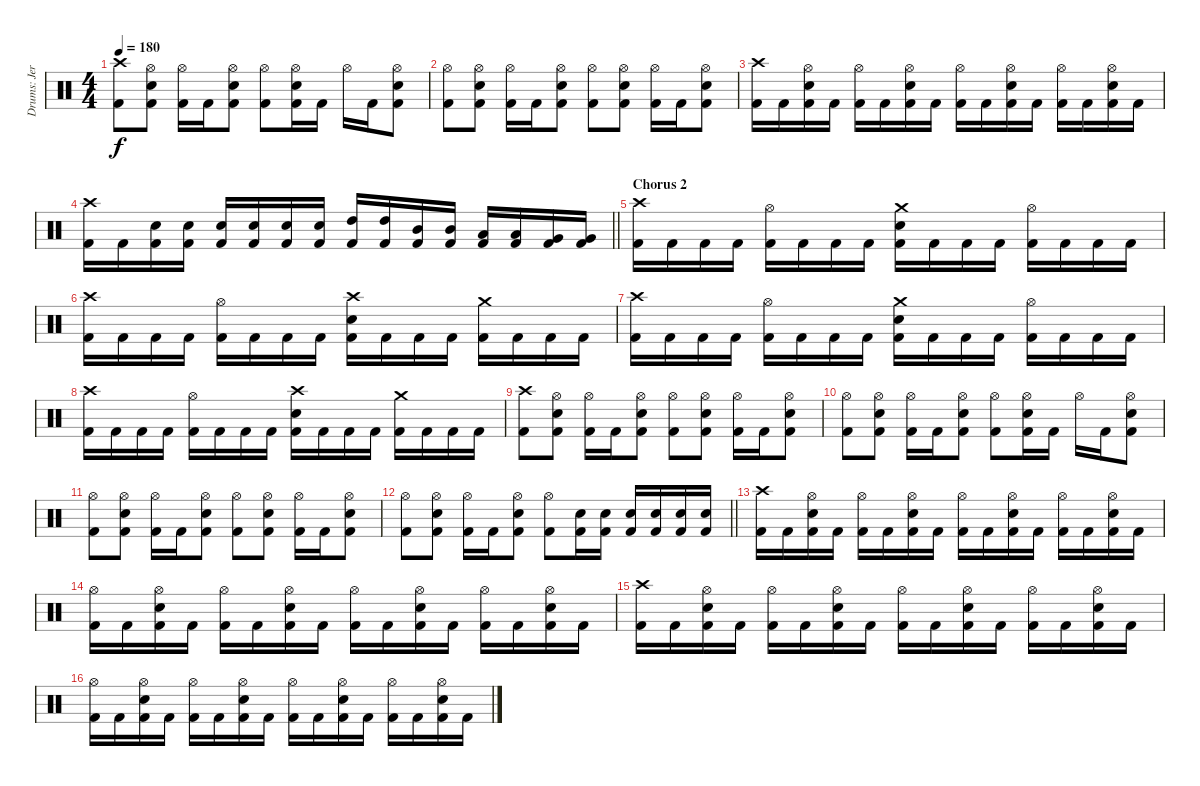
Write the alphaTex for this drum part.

\track ("Drums: Jere Luokkamäki" "Drums: Jer") {instrument percussion}
\staff {score}
\articulation defaults
\ts (4 4)
\tempo 180
\clef neutral
\ks aminor
("Crash high (hit)" "Kick (hit) 2").8{dy f} ("Hi-Hat (open)" "Electric Snare (hit)" "Kick (hit) 2").8 ("Hi-Hat (open)" "Kick (hit) 2").16 "Kick (hit) 2".16 ("Hi-Hat (open)" "Electric Snare (hit)" "Kick (hit) 2").8 ("Hi-Hat (open)" "Kick (hit) 2").8 ("Hi-Hat (open)" "Electric Snare (hit)" "Kick (hit) 2").16 "Kick (hit) 2".16 "Hi-Hat (open)".16 "Kick (hit) 2".16 ("Hi-Hat (open)" "Electric Snare (hit)" "Kick (hit) 2").8 |
("Hi-Hat (open)" "Kick (hit) 2").8 ("Hi-Hat (open)" "Electric Snare (hit)" "Kick (hit) 2").8 ("Hi-Hat (open)" "Kick (hit) 2").16 "Kick (hit) 2".16 ("Hi-Hat (open)" "Electric Snare (hit)" "Kick (hit) 2").8 ("Hi-Hat (open)" "Kick (hit) 2").8 ("Hi-Hat (open)" "Electric Snare (hit)" "Kick (hit) 2").8 ("Hi-Hat (open)" "Kick (hit) 2").16 "Kick (hit) 2".16 ("Hi-Hat (open)" "Electric Snare (hit)" "Kick (hit) 2").8 |
("Crash high (hit)" "Kick (hit) 2").16 "Kick (hit) 2".16 ("Hi-Hat (open)" "Electric Snare (hit)" "Kick (hit) 2").16 "Kick (hit) 2".16 ("Hi-Hat (open)" "Kick (hit) 2").16 "Kick (hit) 2".16 ("Hi-Hat (open)" "Electric Snare (hit)" "Kick (hit) 2").16 "Kick (hit) 2".16 ("Hi-Hat (open)" "Kick (hit) 2").16 "Kick (hit) 2".16 ("Hi-Hat (open)" "Electric Snare (hit)" "Kick (hit) 2").16 "Kick (hit) 2".16 ("Hi-Hat (open)" "Kick (hit) 2").16 "Kick (hit) 2".16 ("Hi-Hat (open)" "Electric Snare (hit)" "Kick (hit) 2").16 "Kick (hit) 2".16 |
\barLineRight lightlight
("Crash high (hit)" "Kick (hit) 2").16 "Kick (hit) 2".16 ("Electric Snare (hit)" "Kick (hit) 2").16 ("Electric Snare (hit)" "Kick (hit) 2").16 ("Electric Snare (hit)" "Kick (hit) 2").16 ("Electric Snare (hit)" "Kick (hit) 2").16 ("Electric Snare (hit)" "Kick (hit) 2").16 ("Electric Snare (hit)" "Kick (hit) 2").16 ("High Tom (hit)" "Kick (hit) 2").16 ("High Tom (hit)" "Kick (hit) 2").16 ("Mid Tom (hit)" "Kick (hit) 2").16 ("Mid Tom (hit)" "Kick (hit) 2").16 ("Low Tom (hit)" "Kick (hit) 2").16 ("Low Tom (hit)" "Kick (hit) 2").16 ("Very Low Tom (hit)" "Kick (hit) 2").16 ("Very Low Tom (hit)" "Kick (hit) 2").16 |
\section ("" "Chorus 2")
("Crash high (hit)" "Kick (hit) 2").16 "Kick (hit) 2".16 "Kick (hit) 2".16 "Kick (hit) 2".16 ("Hi-Hat (open)" "Kick (hit) 2").16 "Kick (hit) 2".16 "Kick (hit) 2".16 "Kick (hit) 2".16 ("Crash medium (hit)" "Electric Snare (hit)" "Kick (hit) 2").16 "Kick (hit) 2".16 "Kick (hit) 2".16 "Kick (hit) 2".16 ("Hi-Hat (open)" "Kick (hit) 2").16 "Kick (hit) 2".16 "Kick (hit) 2".16 "Kick (hit) 2".16 |
("Crash high (hit)" "Kick (hit) 2").16 "Kick (hit) 2".16 "Kick (hit) 2".16 "Kick (hit) 2".16 ("Hi-Hat (open)" "Kick (hit) 2").16 "Kick (hit) 2".16 "Kick (hit) 2".16 "Kick (hit) 2".16 ("Crash high (hit)" "Electric Snare (hit)" "Kick (hit) 2").16 "Kick (hit) 2".16 "Kick (hit) 2".16 "Kick (hit) 2".16 ("Crash medium (hit)" "Kick (hit) 2").16 "Kick (hit) 2".16 "Kick (hit) 2".16 "Kick (hit) 2".16 |
("Crash high (hit)" "Kick (hit) 2").16 "Kick (hit) 2".16 "Kick (hit) 2".16 "Kick (hit) 2".16 ("Hi-Hat (open)" "Kick (hit) 2").16 "Kick (hit) 2".16 "Kick (hit) 2".16 "Kick (hit) 2".16 ("Crash medium (hit)" "Electric Snare (hit)" "Kick (hit) 2").16 "Kick (hit) 2".16 "Kick (hit) 2".16 "Kick (hit) 2".16 ("Hi-Hat (open)" "Kick (hit) 2").16 "Kick (hit) 2".16 "Kick (hit) 2".16 "Kick (hit) 2".16 |
("Crash high (hit)" "Kick (hit) 2").16 "Kick (hit) 2".16 "Kick (hit) 2".16 "Kick (hit) 2".16 ("Hi-Hat (open)" "Kick (hit) 2").16 "Kick (hit) 2".16 "Kick (hit) 2".16 "Kick (hit) 2".16 ("Crash high (hit)" "Electric Snare (hit)" "Kick (hit) 2").16 "Kick (hit) 2".16 "Kick (hit) 2".16 "Kick (hit) 2".16 ("Crash medium (hit)" "Kick (hit) 2").16 "Kick (hit) 2".16 "Kick (hit) 2".16 "Kick (hit) 2".16 |
("Crash high (hit)" "Kick (hit) 2").8 ("Hi-Hat (open)" "Electric Snare (hit)" "Kick (hit) 2").8 ("Hi-Hat (open)" "Kick (hit) 2").16 "Kick (hit) 2".16 ("Hi-Hat (open)" "Electric Snare (hit)" "Kick (hit) 2").8 ("Hi-Hat (open)" "Kick (hit) 2").8 ("Hi-Hat (open)" "Electric Snare (hit)" "Kick (hit) 2").8 ("Hi-Hat (open)" "Kick (hit) 2").16 "Kick (hit) 2".16 ("Hi-Hat (open)" "Electric Snare (hit)" "Kick (hit) 2").8 |
("Hi-Hat (open)" "Kick (hit) 2").8 ("Hi-Hat (open)" "Electric Snare (hit)" "Kick (hit) 2").8 ("Hi-Hat (open)" "Kick (hit) 2").16 "Kick (hit) 2".16 ("Hi-Hat (open)" "Electric Snare (hit)" "Kick (hit) 2").8 ("Hi-Hat (open)" "Kick (hit) 2").8 ("Hi-Hat (open)" "Electric Snare (hit)" "Kick (hit) 2").16 "Kick (hit) 2".16 "Hi-Hat (open)".16 "Kick (hit) 2".16 ("Hi-Hat (open)" "Electric Snare (hit)" "Kick (hit) 2").8 |
("Hi-Hat (open)" "Kick (hit) 2").8 ("Hi-Hat (open)" "Electric Snare (hit)" "Kick (hit) 2").8 ("Hi-Hat (open)" "Kick (hit) 2").16 "Kick (hit) 2".16 ("Hi-Hat (open)" "Electric Snare (hit)" "Kick (hit) 2").8 ("Hi-Hat (open)" "Kick (hit) 2").8 ("Hi-Hat (open)" "Electric Snare (hit)" "Kick (hit) 2").8 ("Hi-Hat (open)" "Kick (hit) 2").16 "Kick (hit) 2".16 ("Hi-Hat (open)" "Electric Snare (hit)" "Kick (hit) 2").8 |
\barLineRight lightlight
("Hi-Hat (open)" "Kick (hit) 2").8 ("Hi-Hat (open)" "Electric Snare (hit)" "Kick (hit) 2").8 ("Hi-Hat (open)" "Kick (hit) 2").16 "Kick (hit) 2".16 ("Hi-Hat (open)" "Electric Snare (hit)" "Kick (hit) 2").8 ("Hi-Hat (open)" "Kick (hit) 2").8 ("Electric Snare (hit)" "Kick (hit) 2").16 ("Electric Snare (hit)" "Kick (hit) 2").16 ("Electric Snare (hit)" "Kick (hit) 2").16 ("Electric Snare (hit)" "Kick (hit) 2").16 ("Electric Snare (hit)" "Kick (hit) 2").16 ("Electric Snare (hit)" "Kick (hit) 2").16 |
("Crash high (hit)" "Kick (hit) 2").16 "Kick (hit) 2".16 ("Hi-Hat (open)" "Electric Snare (hit)" "Kick (hit) 2").16 "Kick (hit) 2".16 ("Hi-Hat (open)" "Kick (hit) 2").16 "Kick (hit) 2".16 ("Hi-Hat (open)" "Electric Snare (hit)" "Kick (hit) 2").16 "Kick (hit) 2".16 ("Hi-Hat (open)" "Kick (hit) 2").16 "Kick (hit) 2".16 ("Hi-Hat (open)" "Electric Snare (hit)" "Kick (hit) 2").16 "Kick (hit) 2".16 ("Hi-Hat (open)" "Kick (hit) 2").16 "Kick (hit) 2".16 ("Hi-Hat (open)" "Electric Snare (hit)" "Kick (hit) 2").16 "Kick (hit) 2".16 |
("Hi-Hat (open)" "Kick (hit) 2").16 "Kick (hit) 2".16 ("Hi-Hat (open)" "Electric Snare (hit)" "Kick (hit) 2").16 "Kick (hit) 2".16 ("Hi-Hat (open)" "Kick (hit) 2").16 "Kick (hit) 2".16 ("Hi-Hat (open)" "Electric Snare (hit)" "Kick (hit) 2").16 "Kick (hit) 2".16 ("Hi-Hat (open)" "Kick (hit) 2").16 "Kick (hit) 2".16 ("Hi-Hat (open)" "Electric Snare (hit)" "Kick (hit) 2").16 "Kick (hit) 2".16 ("Hi-Hat (open)" "Kick (hit) 2").16 "Kick (hit) 2".16 ("Hi-Hat (open)" "Electric Snare (hit)" "Kick (hit) 2").16 "Kick (hit) 2".16 |
("Crash high (hit)" "Kick (hit) 2").16 "Kick (hit) 2".16 ("Hi-Hat (open)" "Electric Snare (hit)" "Kick (hit) 2").16 "Kick (hit) 2".16 ("Hi-Hat (open)" "Kick (hit) 2").16 "Kick (hit) 2".16 ("Hi-Hat (open)" "Electric Snare (hit)" "Kick (hit) 2").16 "Kick (hit) 2".16 ("Hi-Hat (open)" "Kick (hit) 2").16 "Kick (hit) 2".16 ("Hi-Hat (open)" "Electric Snare (hit)" "Kick (hit) 2").16 "Kick (hit) 2".16 ("Hi-Hat (open)" "Kick (hit) 2").16 "Kick (hit) 2".16 ("Hi-Hat (open)" "Electric Snare (hit)" "Kick (hit) 2").16 "Kick (hit) 2".16 |
("Hi-Hat (open)" "Kick (hit) 2").16 "Kick (hit) 2".16 ("Hi-Hat (open)" "Electric Snare (hit)" "Kick (hit) 2").16 "Kick (hit) 2".16 ("Hi-Hat (open)" "Kick (hit) 2").16 "Kick (hit) 2".16 ("Hi-Hat (open)" "Electric Snare (hit)" "Kick (hit) 2").16 "Kick (hit) 2".16 ("Hi-Hat (open)" "Kick (hit) 2").16 "Kick (hit) 2".16 ("Hi-Hat (open)" "Electric Snare (hit)" "Kick (hit) 2").16 "Kick (hit) 2".16 ("Hi-Hat (open)" "Kick (hit) 2").16 "Kick (hit) 2".16 ("Hi-Hat (open)" "Electric Snare (hit)" "Kick (hit) 2").16 "Kick (hit) 2".16
